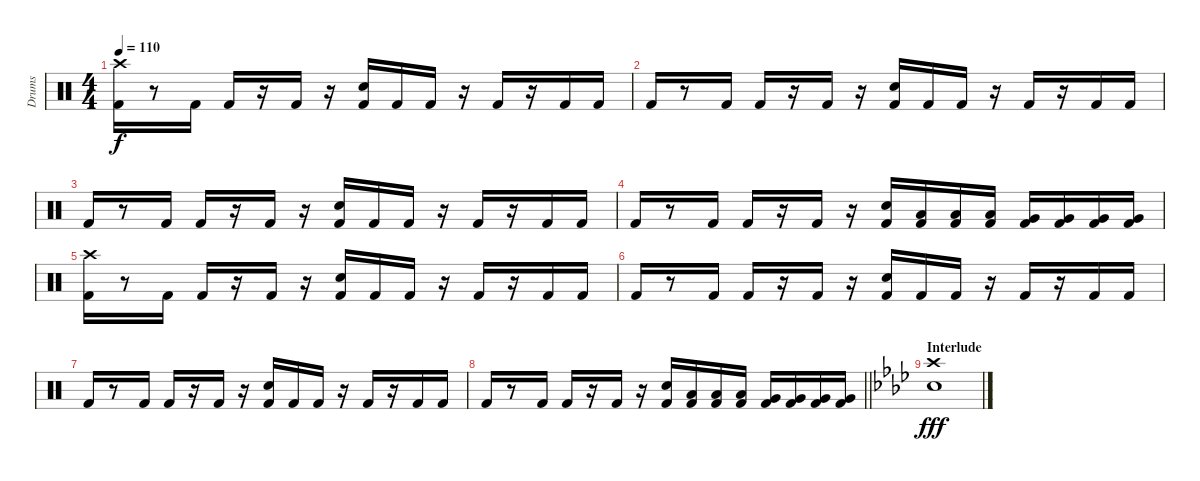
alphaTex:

\track ("Drums" "Drums") {instrument percussion}
\staff {score}
\articulation defaults
\ts (4 4)
\tempo 110
\clef neutral
\ks c
("Crash high (hit)" "Kick (hit) 2").16{dy f} r.8 "Kick (hit) 2".16 "Kick (hit) 2".16 r.16 "Kick (hit) 2".16 r.16 ("Electric Snare (hit)" "Kick (hit) 2").16 "Kick (hit) 2".16 "Kick (hit) 2".16 r.16 "Kick (hit) 2".16 r.16 "Kick (hit) 2".16 "Kick (hit) 2".16 |
"Kick (hit) 2".16 r.8 "Kick (hit) 2".16 "Kick (hit) 2".16 r.16 "Kick (hit) 2".16 r.16 ("Electric Snare (hit)" "Kick (hit) 2").16 "Kick (hit) 2".16 "Kick (hit) 2".16 r.16 "Kick (hit) 2".16 r.16 "Kick (hit) 2".16 "Kick (hit) 2".16 |
"Kick (hit) 2".16 r.8 "Kick (hit) 2".16 "Kick (hit) 2".16 r.16 "Kick (hit) 2".16 r.16 ("Electric Snare (hit)" "Kick (hit) 2").16 "Kick (hit) 2".16 "Kick (hit) 2".16 r.16 "Kick (hit) 2".16 r.16 "Kick (hit) 2".16 "Kick (hit) 2".16 |
"Kick (hit) 2".16 r.8 "Kick (hit) 2".16 "Kick (hit) 2".16 r.16 "Kick (hit) 2".16 r.16 ("Electric Snare (hit)" "Kick (hit) 2").16 ("Low Tom (hit)" "Kick (hit) 2").16 ("Low Tom (hit)" "Kick (hit) 2").16 ("Low Tom (hit)" "Kick (hit) 2").16 ("Very Low Tom (hit)" "Kick (hit) 2").16 ("Very Low Tom (hit)" "Kick (hit) 2").16 ("Very Low Tom (hit)" "Kick (hit) 2").16 ("Very Low Tom (hit)" "Kick (hit) 2").16 |
("Crash high (hit)" "Kick (hit) 2").16 r.8 "Kick (hit) 2".16 "Kick (hit) 2".16 r.16 "Kick (hit) 2".16 r.16 ("Electric Snare (hit)" "Kick (hit) 2").16 "Kick (hit) 2".16 "Kick (hit) 2".16 r.16 "Kick (hit) 2".16 r.16 "Kick (hit) 2".16 "Kick (hit) 2".16 |
"Kick (hit) 2".16 r.8 "Kick (hit) 2".16 "Kick (hit) 2".16 r.16 "Kick (hit) 2".16 r.16 ("Electric Snare (hit)" "Kick (hit) 2").16 "Kick (hit) 2".16 "Kick (hit) 2".16 r.16 "Kick (hit) 2".16 r.16 "Kick (hit) 2".16 "Kick (hit) 2".16 |
"Kick (hit) 2".16 r.8 "Kick (hit) 2".16 "Kick (hit) 2".16 r.16 "Kick (hit) 2".16 r.16 ("Electric Snare (hit)" "Kick (hit) 2").16 "Kick (hit) 2".16 "Kick (hit) 2".16 r.16 "Kick (hit) 2".16 r.16 "Kick (hit) 2".16 "Kick (hit) 2".16 |
\barLineRight lightlight "Kick (hit) 2".16
r.8 "Kick (hit) 2".16 "Kick (hit) 2".16 r.16 "Kick (hit) 2".16 r.16 ("Electric Snare (hit)" "Kick (hit) 2").16 ("Low Tom (hit)" "Kick (hit) 2").16 ("Low Tom (hit)" "Kick (hit) 2").16 ("Low Tom (hit)" "Kick (hit) 2").16 ("Very Low Tom (hit)" "Kick (hit) 2").16 ("Very Low Tom (hit)" "Kick (hit) 2").16 ("Very Low Tom (hit)" "Kick (hit) 2").16 ("Very Low Tom (hit)" "Kick (hit) 2").16 |
\section ("" "Interlude")
\ks fminor
("Crash high (hit)" "Electric Snare (hit)").1{dy fff}
